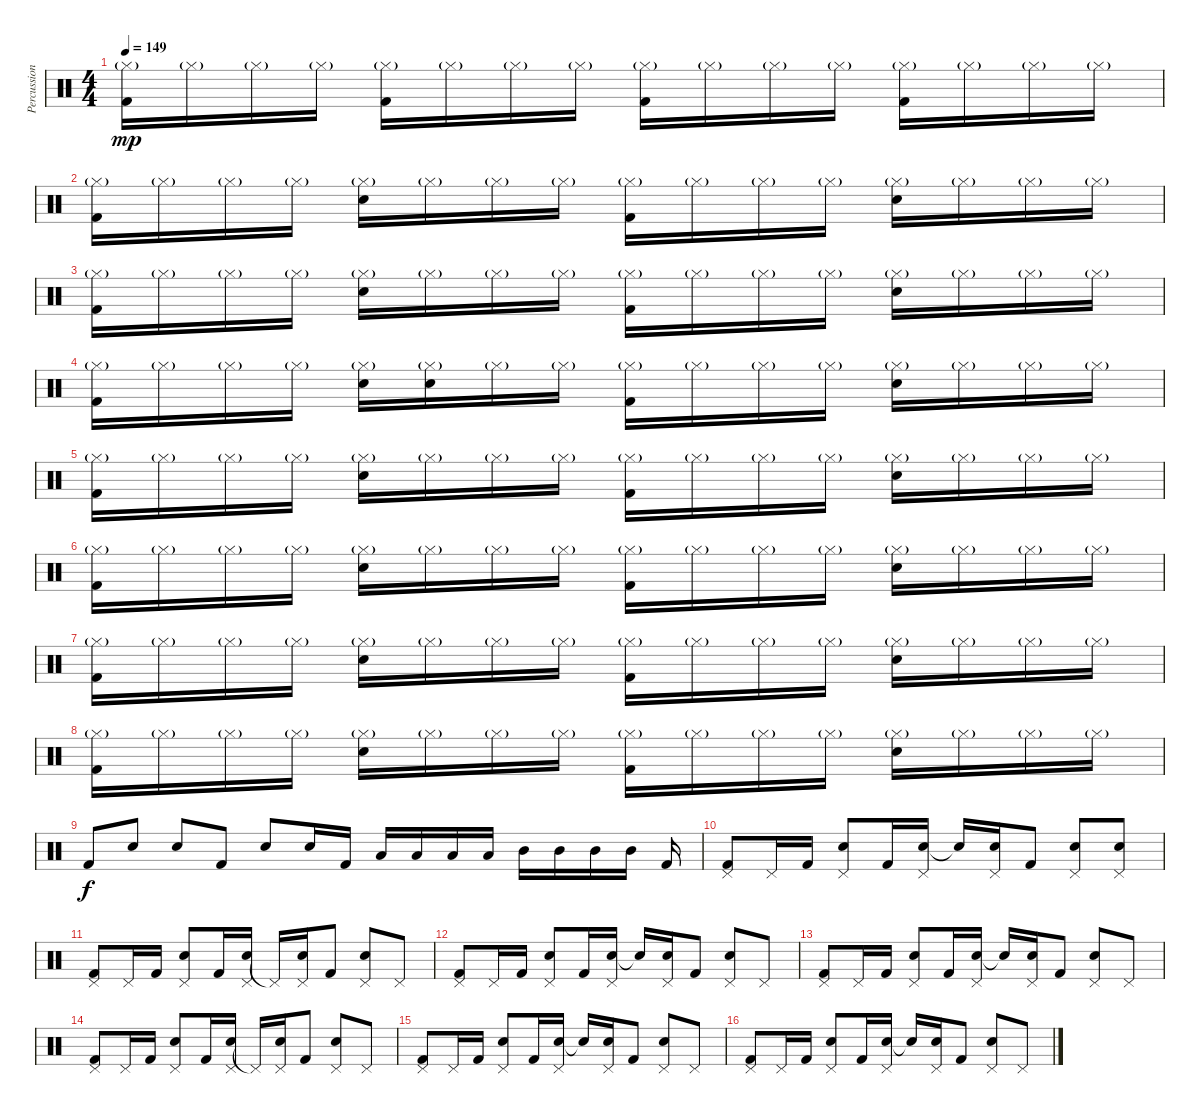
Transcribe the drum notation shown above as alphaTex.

\track ("Percussion" "Percussion") {instrument percussion}
\staff {score}
\articulation defaults
\ts (4 4)
\tempo 149
\clef neutral
\ks c
("Hi-Hat (closed)"{g} "Kick (hit) 2").16{dy mp} "Hi-Hat (closed)"{g}.16 "Hi-Hat (closed)"{g}.16 "Hi-Hat (closed)"{g}.16 ("Hi-Hat (closed)"{g} "Kick (hit) 2").16 "Hi-Hat (closed)"{g}.16 "Hi-Hat (closed)"{g}.16 "Hi-Hat (closed)"{g}.16 ("Hi-Hat (closed)"{g} "Kick (hit) 2").16 "Hi-Hat (closed)"{g}.16 "Hi-Hat (closed)"{g}.16 "Hi-Hat (closed)"{g}.16 ("Hi-Hat (closed)"{g} "Kick (hit) 2").16 "Hi-Hat (closed)"{g}.16 "Hi-Hat (closed)"{g}.16 "Hi-Hat (closed)"{g}.16 |
("Hi-Hat (closed)"{g} "Kick (hit) 2").16 "Hi-Hat (closed)"{g}.16 "Hi-Hat (closed)"{g}.16 "Hi-Hat (closed)"{g}.16 ("Hi-Hat (closed)"{g} "Electric Snare (hit)").16 "Hi-Hat (closed)"{g}.16 "Hi-Hat (closed)"{g}.16 "Hi-Hat (closed)"{g}.16 ("Hi-Hat (closed)"{g} "Kick (hit) 2").16 "Hi-Hat (closed)"{g}.16 "Hi-Hat (closed)"{g}.16 "Hi-Hat (closed)"{g}.16 ("Hi-Hat (closed)"{g} "Electric Snare (hit)").16 "Hi-Hat (closed)"{g}.16 "Hi-Hat (closed)"{g}.16 "Hi-Hat (closed)"{g}.16 |
("Hi-Hat (closed)"{g} "Kick (hit) 2").16 "Hi-Hat (closed)"{g}.16 "Hi-Hat (closed)"{g}.16 "Hi-Hat (closed)"{g}.16 ("Hi-Hat (closed)"{g} "Electric Snare (hit)").16 "Hi-Hat (closed)"{g}.16 "Hi-Hat (closed)"{g}.16 "Hi-Hat (closed)"{g}.16 ("Hi-Hat (closed)"{g} "Kick (hit) 2").16 "Hi-Hat (closed)"{g}.16 "Hi-Hat (closed)"{g}.16 "Hi-Hat (closed)"{g}.16 ("Hi-Hat (closed)"{g} "Electric Snare (hit)").16 "Hi-Hat (closed)"{g}.16 "Hi-Hat (closed)"{g}.16 "Hi-Hat (closed)"{g}.16 |
("Hi-Hat (closed)"{g} "Kick (hit) 2").16 "Hi-Hat (closed)"{g}.16 "Hi-Hat (closed)"{g}.16 "Hi-Hat (closed)"{g}.16 ("Hi-Hat (closed)"{g} "Electric Snare (hit)").16 ("Hi-Hat (closed)"{g} "Snare (hit)").16 "Hi-Hat (closed)"{g}.16 "Hi-Hat (closed)"{g}.16 ("Hi-Hat (closed)"{g} "Kick (hit) 2").16 "Hi-Hat (closed)"{g}.16 "Hi-Hat (closed)"{g}.16 "Hi-Hat (closed)"{g}.16 ("Hi-Hat (closed)"{g} "Electric Snare (hit)").16 "Hi-Hat (closed)"{g}.16 "Hi-Hat (closed)"{g}.16 "Hi-Hat (closed)"{g}.16 |
("Hi-Hat (closed)"{g} "Kick (hit) 2").16 "Hi-Hat (closed)"{g}.16 "Hi-Hat (closed)"{g}.16 "Hi-Hat (closed)"{g}.16 ("Hi-Hat (closed)"{g} "Electric Snare (hit)").16 "Hi-Hat (closed)"{g}.16 "Hi-Hat (closed)"{g}.16 "Hi-Hat (closed)"{g}.16 ("Hi-Hat (closed)"{g} "Kick (hit) 2").16 "Hi-Hat (closed)"{g}.16 "Hi-Hat (closed)"{g}.16 "Hi-Hat (closed)"{g}.16 ("Hi-Hat (closed)"{g} "Electric Snare (hit)").16 "Hi-Hat (closed)"{g}.16 "Hi-Hat (closed)"{g}.16 "Hi-Hat (closed)"{g}.16 |
("Hi-Hat (closed)"{g} "Kick (hit) 2").16 "Hi-Hat (closed)"{g}.16 "Hi-Hat (closed)"{g}.16 "Hi-Hat (closed)"{g}.16 ("Hi-Hat (closed)"{g} "Electric Snare (hit)").16 "Hi-Hat (closed)"{g}.16 "Hi-Hat (closed)"{g}.16 "Hi-Hat (closed)"{g}.16 ("Hi-Hat (closed)"{g} "Kick (hit) 2").16 "Hi-Hat (closed)"{g}.16 "Hi-Hat (closed)"{g}.16 "Hi-Hat (closed)"{g}.16 ("Hi-Hat (closed)"{g} "Electric Snare (hit)").16 "Hi-Hat (closed)"{g}.16 "Hi-Hat (closed)"{g}.16 "Hi-Hat (closed)"{g}.16 |
("Hi-Hat (closed)"{g} "Kick (hit) 2").16 "Hi-Hat (closed)"{g}.16 "Hi-Hat (closed)"{g}.16 "Hi-Hat (closed)"{g}.16 ("Hi-Hat (closed)"{g} "Electric Snare (hit)").16 "Hi-Hat (closed)"{g}.16 "Hi-Hat (closed)"{g}.16 "Hi-Hat (closed)"{g}.16 ("Hi-Hat (closed)"{g} "Kick (hit) 2").16 "Hi-Hat (closed)"{g}.16 "Hi-Hat (closed)"{g}.16 "Hi-Hat (closed)"{g}.16 ("Hi-Hat (closed)"{g} "Electric Snare (hit)").16 "Hi-Hat (closed)"{g}.16 "Hi-Hat (closed)"{g}.16 "Hi-Hat (closed)"{g}.16 |
("Hi-Hat (closed)"{g} "Kick (hit) 2").16 "Hi-Hat (closed)"{g}.16 "Hi-Hat (closed)"{g}.16 "Hi-Hat (closed)"{g}.16 ("Hi-Hat (closed)"{g} "Electric Snare (hit)").16 "Hi-Hat (closed)"{g}.16 "Hi-Hat (closed)"{g}.16 "Hi-Hat (closed)"{g}.16 ("Hi-Hat (closed)"{g} "Kick (hit) 2").16 "Hi-Hat (closed)"{g}.16 "Hi-Hat (closed)"{g}.16 "Hi-Hat (closed)"{g}.16 ("Hi-Hat (closed)"{g} "Electric Snare (hit)").16 "Hi-Hat (closed)"{g}.16 "Hi-Hat (closed)"{g}.16 "Hi-Hat (closed)"{g}.16 |
"Kick (hit) 2".8{dy f} "Electric Snare (hit)".8 "Electric Snare (hit)".8 "Kick (hit) 2".8 "Electric Snare (hit)".8 "Electric Snare (hit)".16 "Kick (hit) 2".16 "Low Floor Tom (hit)".16 "Low Floor Tom (hit)".16 "Low Floor Tom (hit)".16 "Low Floor Tom (hit)".16 "Mid Tom (hit)".16 "Mid Tom (hit)".16 "Mid Tom (hit)".16 "Mid Tom (hit)".16 "Kick (hit) 2".16 |
("Kick (hit) 2" "Pedal Hi-Hat (hit)").8 "Pedal Hi-Hat (hit)".16 "Kick (hit) 2".16 ("Electric Snare (hit)" "Pedal Hi-Hat (hit)").8 "Kick (hit) 2".16 ("Electric Snare (hit)" "Pedal Hi-Hat (hit)").16 "Snare (hit)"{t}.16 ("Electric Snare (hit)" "Pedal Hi-Hat (hit)").16 "Kick (hit) 2".8 ("Electric Snare (hit)" "Pedal Hi-Hat (hit)").8 ("Pedal Hi-Hat (hit)" "Snare (hit)").8 |
("Kick (hit) 2" "Pedal Hi-Hat (hit)").8 "Pedal Hi-Hat (hit)".16 "Kick (hit) 2".16 ("Electric Snare (hit)" "Pedal Hi-Hat (hit)").8 "Kick (hit) 2".16 ("Electric Snare (hit)" "Pedal Hi-Hat (hit)").16 "Pedal Hi-Hat (hit)"{t}.16 ("Electric Snare (hit)" "Pedal Hi-Hat (hit)").16 "Kick (hit) 2".8 ("Electric Snare (hit)" "Pedal Hi-Hat (hit)").8 "Pedal Hi-Hat (hit)".8 |
("Kick (hit) 2" "Pedal Hi-Hat (hit)").8 "Pedal Hi-Hat (hit)".16 "Kick (hit) 2".16 ("Electric Snare (hit)" "Pedal Hi-Hat (hit)").8 "Kick (hit) 2".16 ("Electric Snare (hit)" "Pedal Hi-Hat (hit)").16 "Snare (hit)"{t}.16 ("Electric Snare (hit)" "Pedal Hi-Hat (hit)").16 "Kick (hit) 2".8 ("Electric Snare (hit)" "Pedal Hi-Hat (hit)").8 "Pedal Hi-Hat (hit)".8 |
("Kick (hit) 2" "Pedal Hi-Hat (hit)").8 "Pedal Hi-Hat (hit)".16 "Kick (hit) 2".16 ("Electric Snare (hit)" "Pedal Hi-Hat (hit)").8 "Kick (hit) 2".16 ("Electric Snare (hit)" "Pedal Hi-Hat (hit)").16 "Snare (hit)"{t}.16 ("Electric Snare (hit)" "Pedal Hi-Hat (hit)").16 "Kick (hit) 2".8 ("Electric Snare (hit)" "Pedal Hi-Hat (hit)").8 "Pedal Hi-Hat (hit)".8 |
("Kick (hit) 2" "Pedal Hi-Hat (hit)").8 "Pedal Hi-Hat (hit)".16 "Kick (hit) 2".16 ("Electric Snare (hit)" "Pedal Hi-Hat (hit)").8 "Kick (hit) 2".16 ("Electric Snare (hit)" "Pedal Hi-Hat (hit)").16 "Pedal Hi-Hat (hit)"{t}.16 ("Electric Snare (hit)" "Pedal Hi-Hat (hit)").16 "Kick (hit) 2".8 ("Electric Snare (hit)" "Pedal Hi-Hat (hit)").8 "Pedal Hi-Hat (hit)".8 |
("Kick (hit) 2" "Pedal Hi-Hat (hit)").8 "Pedal Hi-Hat (hit)".16 "Kick (hit) 2".16 ("Electric Snare (hit)" "Pedal Hi-Hat (hit)").8 "Kick (hit) 2".16 ("Electric Snare (hit)" "Pedal Hi-Hat (hit)").16 "Snare (hit)"{t}.16 ("Electric Snare (hit)" "Pedal Hi-Hat (hit)").16 "Kick (hit) 2".8 ("Electric Snare (hit)" "Pedal Hi-Hat (hit)").8 "Pedal Hi-Hat (hit)".8 |
("Kick (hit) 2" "Pedal Hi-Hat (hit)").8 "Pedal Hi-Hat (hit)".16 "Kick (hit) 2".16 ("Electric Snare (hit)" "Pedal Hi-Hat (hit)").8 "Kick (hit) 2".16 ("Electric Snare (hit)" "Pedal Hi-Hat (hit)").16 "Snare (hit)"{t}.16 ("Electric Snare (hit)" "Pedal Hi-Hat (hit)").16 "Kick (hit) 2".8 ("Electric Snare (hit)" "Pedal Hi-Hat (hit)").8 "Pedal Hi-Hat (hit)".8
